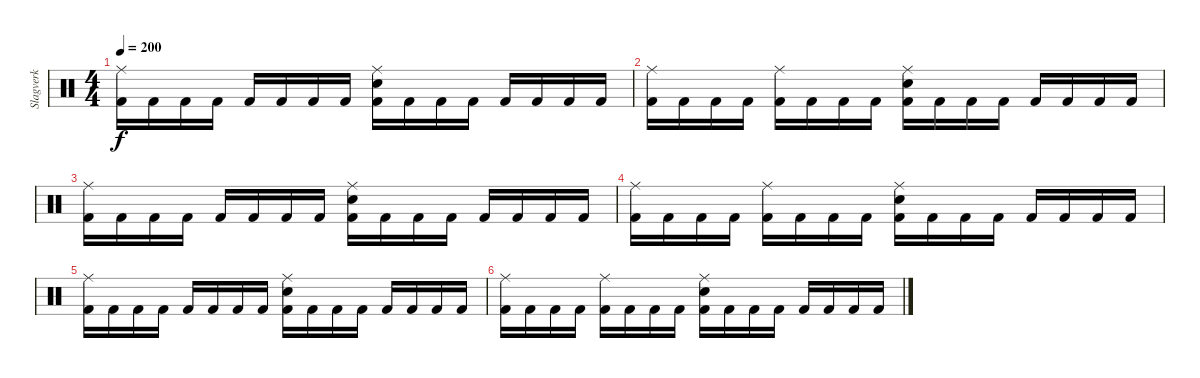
\track ("Slagverk" "Slagverk") {instrument percussion}
\staff {score}
\articulation defaults
\ts (4 4)
\tempo 200
\clef neutral
\ks c
("Ride (middle)" "Kick (hit) 2").16{dy f} "Kick (hit) 2".16 "Kick (hit) 2".16 "Kick (hit) 2".16 "Kick (hit) 2".16 "Kick (hit) 2".16 "Kick (hit) 2".16 "Kick (hit) 2".16 ("Ride (middle)" "Snare (hit) 2" "Kick (hit) 2").16 "Kick (hit) 2".16 "Kick (hit) 2".16 "Kick (hit) 2".16 "Kick (hit) 2".16 "Kick (hit) 2".16 "Kick (hit) 2".16 "Kick (hit) 2".16 |
("Ride (middle)" "Kick (hit) 2").16 "Kick (hit) 2".16 "Kick (hit) 2".16 "Kick (hit) 2".16 ("Ride (middle)" "Kick (hit) 2").16 "Kick (hit) 2".16 "Kick (hit) 2".16 "Kick (hit) 2".16 ("Ride (middle)" "Snare (hit) 2" "Kick (hit) 2").16 "Kick (hit) 2".16 "Kick (hit) 2".16 "Kick (hit) 2".16 "Kick (hit) 2".16 "Kick (hit) 2".16 "Kick (hit) 2".16 "Kick (hit) 2".16 |
("Ride (middle)" "Kick (hit) 2").16 "Kick (hit) 2".16 "Kick (hit) 2".16 "Kick (hit) 2".16 "Kick (hit) 2".16 "Kick (hit) 2".16 "Kick (hit) 2".16 "Kick (hit) 2".16 ("Ride (middle)" "Snare (hit) 2" "Kick (hit) 2").16 "Kick (hit) 2".16 "Kick (hit) 2".16 "Kick (hit) 2".16 "Kick (hit) 2".16 "Kick (hit) 2".16 "Kick (hit) 2".16 "Kick (hit) 2".16 |
("Ride (middle)" "Kick (hit) 2").16 "Kick (hit) 2".16 "Kick (hit) 2".16 "Kick (hit) 2".16 ("Ride (middle)" "Kick (hit) 2").16 "Kick (hit) 2".16 "Kick (hit) 2".16 "Kick (hit) 2".16 ("Ride (middle)" "Snare (hit) 2" "Kick (hit) 2").16 "Kick (hit) 2".16 "Kick (hit) 2".16 "Kick (hit) 2".16 "Kick (hit) 2".16 "Kick (hit) 2".16 "Kick (hit) 2".16 "Kick (hit) 2".16 |
("Ride (middle)" "Kick (hit) 2").16 "Kick (hit) 2".16 "Kick (hit) 2".16 "Kick (hit) 2".16 "Kick (hit) 2".16 "Kick (hit) 2".16 "Kick (hit) 2".16 "Kick (hit) 2".16 ("Ride (middle)" "Snare (hit) 2" "Kick (hit) 2").16 "Kick (hit) 2".16 "Kick (hit) 2".16 "Kick (hit) 2".16 "Kick (hit) 2".16 "Kick (hit) 2".16 "Kick (hit) 2".16 "Kick (hit) 2".16 |
("Ride (middle)" "Kick (hit) 2").16 "Kick (hit) 2".16 "Kick (hit) 2".16 "Kick (hit) 2".16 ("Ride (middle)" "Kick (hit) 2").16 "Kick (hit) 2".16 "Kick (hit) 2".16 "Kick (hit) 2".16 ("Ride (middle)" "Snare (hit) 2" "Kick (hit) 2").16 "Kick (hit) 2".16 "Kick (hit) 2".16 "Kick (hit) 2".16 "Kick (hit) 2".16 "Kick (hit) 2".16 "Kick (hit) 2".16 "Kick (hit) 2".16
